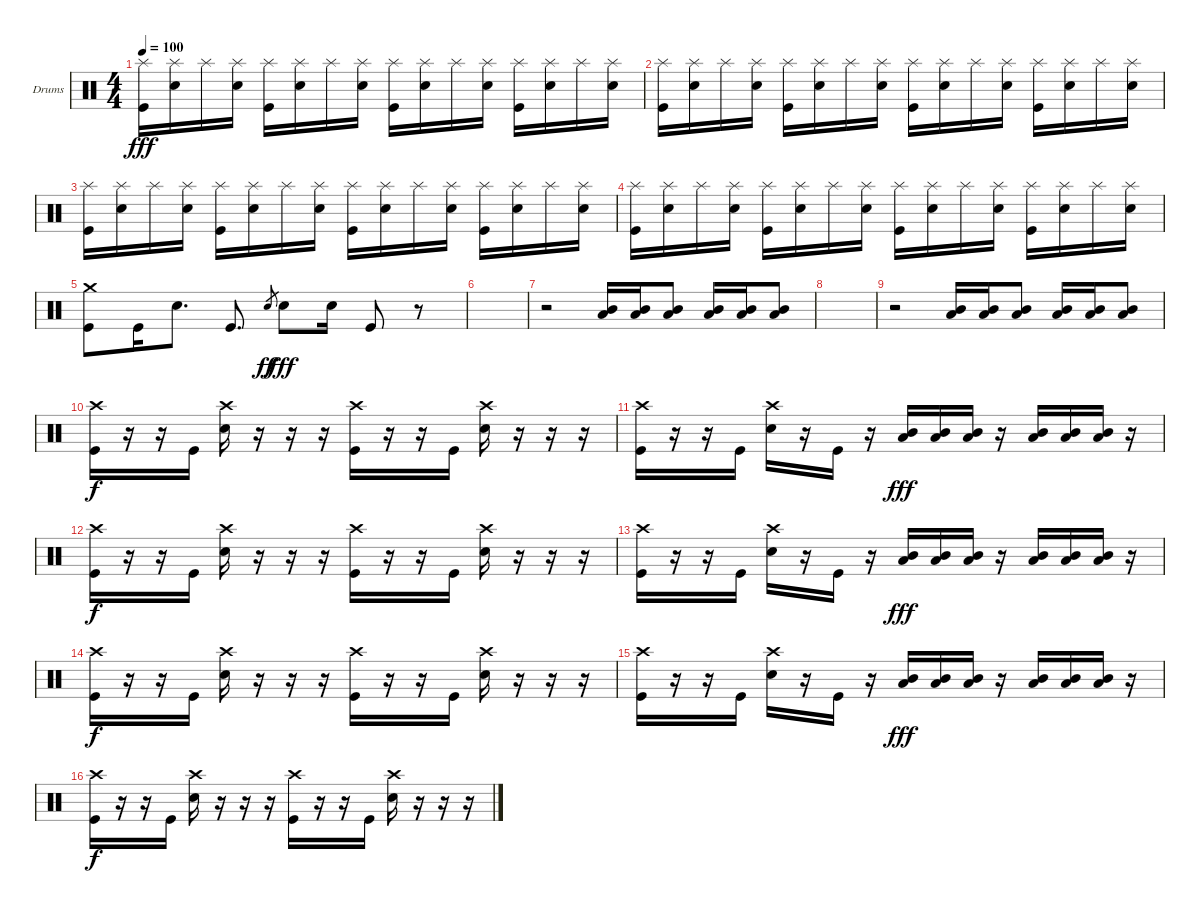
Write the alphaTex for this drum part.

\bracketExtendMode groupsimilarinstruments
\firstSystemTrackNameOrientation horizontal
\otherSystemsTrackNameOrientation horizontal
\track ("Lars Ulrich (Drum)" "Drums") {instrument percussion}
\staff {score}
\articulation defaults
\ts (4 4)
\tempo 100
\clef neutral
\scale
0.333333
\ks c
("Splash (hit)" "Kick (hit)").16{dy fff} ("Splash (hit)" "Snare (hit) 2").16 "Splash (hit)".16 ("Splash (hit)" "Snare (hit) 2").16 ("Splash (hit)" "Kick (hit)").16 ("Splash (hit)" "Snare (hit) 2").16 "Splash (hit)".16 ("Splash (hit)" "Snare (hit) 2").16 ("Splash (hit)" "Kick (hit)").16 ("Splash (hit)" "Snare (hit) 2").16 "Splash (hit)".16 ("Splash (hit)" "Snare (hit) 2").16 ("Splash (hit)" "Kick (hit)").16 ("Splash (hit)" "Snare (hit) 2").16 "Splash (hit)".16 ("Splash (hit)" "Snare (hit) 2").16 |
\scale
0.333333 ("Splash (hit)" "Kick (hit)").16 ("Splash (hit)" "Snare (hit) 2").16 "Splash (hit)".16 ("Splash (hit)" "Snare (hit) 2").16 ("Splash (hit)" "Kick (hit)").16 ("Splash (hit)" "Snare (hit) 2").16 "Splash (hit)".16 ("Splash (hit)" "Snare (hit) 2").16 ("Splash (hit)" "Kick (hit)").16 ("Splash (hit)" "Snare (hit) 2").16 "Splash (hit)".16 ("Splash (hit)" "Snare (hit) 2").16 ("Splash (hit)" "Kick (hit)").16 ("Splash (hit)" "Snare (hit) 2").16 "Splash (hit)".16 ("Splash (hit)" "Snare (hit) 2").16 |
\scale
0.333333 ("Splash (hit)" "Kick (hit)").16 ("Splash (hit)" "Snare (hit) 2").16 "Splash (hit)".16 ("Splash (hit)" "Snare (hit) 2").16 ("Splash (hit)" "Kick (hit)").16 ("Splash (hit)" "Snare (hit) 2").16 "Splash (hit)".16 ("Splash (hit)" "Snare (hit) 2").16 ("Splash (hit)" "Kick (hit)").16 ("Splash (hit)" "Snare (hit) 2").16 "Splash (hit)".16 ("Splash (hit)" "Snare (hit) 2").16 ("Splash (hit)" "Kick (hit)").16 ("Splash (hit)" "Snare (hit) 2").16 "Splash (hit)".16 ("Splash (hit)" "Snare (hit) 2").16 |
\scale
0.333333 ("Splash (hit)" "Kick (hit)").16 ("Splash (hit)" "Snare (hit) 2").16 "Splash (hit)".16 ("Splash (hit)" "Snare (hit) 2").16 ("Splash (hit)" "Kick (hit)").16 ("Splash (hit)" "Snare (hit) 2").16 "Splash (hit)".16 ("Splash (hit)" "Snare (hit) 2").16 ("Splash (hit)" "Kick (hit)").16 ("Splash (hit)" "Snare (hit) 2").16 "Splash (hit)".16 ("Splash (hit)" "Snare (hit) 2").16 ("Splash (hit)" "Kick (hit)").16 ("Splash (hit)" "Snare (hit) 2").16 "Splash (hit)".16 ("Splash (hit)" "Snare (hit) 2").16 |
\scale
0.333333 ("Crash medium (hit)" "Kick (hit)").8 "Kick (hit)".16 "Snare (hit) 2".8{d} "Kick (hit)".8{d} "Snare (hit) 2".8{gr dy ff} "Snare (hit) 2".8{dy fff} "Snare (hit) 2".16 "Kick (hit)".8 r.8 |
\scale
0.333333 |
\scale
0.333333 r.2 ("Low Tom (hit)" "Mid Tom (hit)").16 ("Low Tom (hit)" "Mid Tom (hit)").16 ("Low Tom (hit)" "Mid Tom (hit)").8 ("Low Tom (hit)" "Mid Tom (hit)").16 ("Low Tom (hit)" "Mid Tom (hit)").16 ("Low Tom (hit)" "Mid Tom (hit)").8 |
\scale
0.333333 |
\scale
0.333333 r.2 ("Low Tom (hit)" "Mid Tom (hit)").16 ("Low Tom (hit)" "Mid Tom (hit)").16 ("Low Tom (hit)" "Mid Tom (hit)").8 ("Low Tom (hit)" "Mid Tom (hit)").16 ("Low Tom (hit)" "Mid Tom (hit)").16 ("Low Tom (hit)" "Mid Tom (hit)").8 |
\scale
0.333333 ("Crash high (hit)" "Kick (hit)").16{dy f} r.16 r.16 "Kick (hit)".16 ("Crash high (hit)" "Snare (hit) 2").16 r.16 r.16 r.16 ("Crash high (hit)" "Kick (hit)").16 r.16 r.16 "Kick (hit)".16 ("Crash high (hit)" "Snare (hit) 2").16 r.16 r.16 r.16 |
\scale
0.333333 ("Crash high (hit)" "Kick (hit)").16 r.16 r.16 "Kick (hit)".16 ("Crash high (hit)" "Snare (hit) 2").16 r.16 "Kick (hit)".16 r.16 ("Low Tom (hit)" "Mid Tom (hit)").16{dy fff} ("Low Tom (hit)" "Mid Tom (hit)").16 ("Low Tom (hit)" "Mid Tom (hit)").16 r.16 ("Low Tom (hit)" "Mid Tom (hit)").16 ("Low Tom (hit)" "Mid Tom (hit)").16 ("Low Tom (hit)" "Mid Tom (hit)").16 r.16 |
\scale
0.333333 ("Crash high (hit)" "Kick (hit)").16{dy f} r.16 r.16 "Kick (hit)".16 ("Crash high (hit)" "Snare (hit) 2").16 r.16 r.16 r.16 ("Crash high (hit)" "Kick (hit)").16 r.16 r.16 "Kick (hit)".16 ("Crash high (hit)" "Snare (hit) 2").16 r.16 r.16 r.16 |
\scale
0.333333 ("Crash high (hit)" "Kick (hit)").16 r.16 r.16 "Kick (hit)".16 ("Crash high (hit)" "Snare (hit) 2").16 r.16 "Kick (hit)".16 r.16 ("Low Tom (hit)" "Mid Tom (hit)").16{dy fff} ("Low Tom (hit)" "Mid Tom (hit)").16 ("Low Tom (hit)" "Mid Tom (hit)").16 r.16 ("Low Tom (hit)" "Mid Tom (hit)").16 ("Low Tom (hit)" "Mid Tom (hit)").16 ("Low Tom (hit)" "Mid Tom (hit)").16 r.16 |
\scale
0.333333 ("Crash high (hit)" "Kick (hit)").16{dy f} r.16 r.16 "Kick (hit)".16 ("Crash high (hit)" "Snare (hit) 2").16 r.16 r.16 r.16 ("Crash high (hit)" "Kick (hit)").16 r.16 r.16 "Kick (hit)".16 ("Crash high (hit)" "Snare (hit) 2").16 r.16 r.16 r.16 |
\scale
0.333333 ("Crash high (hit)" "Kick (hit)").16 r.16 r.16 "Kick (hit)".16 ("Crash high (hit)" "Snare (hit) 2").16 r.16 "Kick (hit)".16 r.16 ("Low Tom (hit)" "Mid Tom (hit)").16{dy fff} ("Low Tom (hit)" "Mid Tom (hit)").16 ("Low Tom (hit)" "Mid Tom (hit)").16 r.16 ("Low Tom (hit)" "Mid Tom (hit)").16 ("Low Tom (hit)" "Mid Tom (hit)").16 ("Low Tom (hit)" "Mid Tom (hit)").16 r.16 |
\scale
0.333333 ("Crash high (hit)" "Kick (hit)").16{dy f} r.16 r.16 "Kick (hit)".16 ("Crash high (hit)" "Snare (hit) 2").16 r.16 r.16 r.16 ("Crash high (hit)" "Kick (hit)").16 r.16 r.16 "Kick (hit)".16 ("Crash high (hit)" "Snare (hit) 2").16 r.16 r.16 r.16
